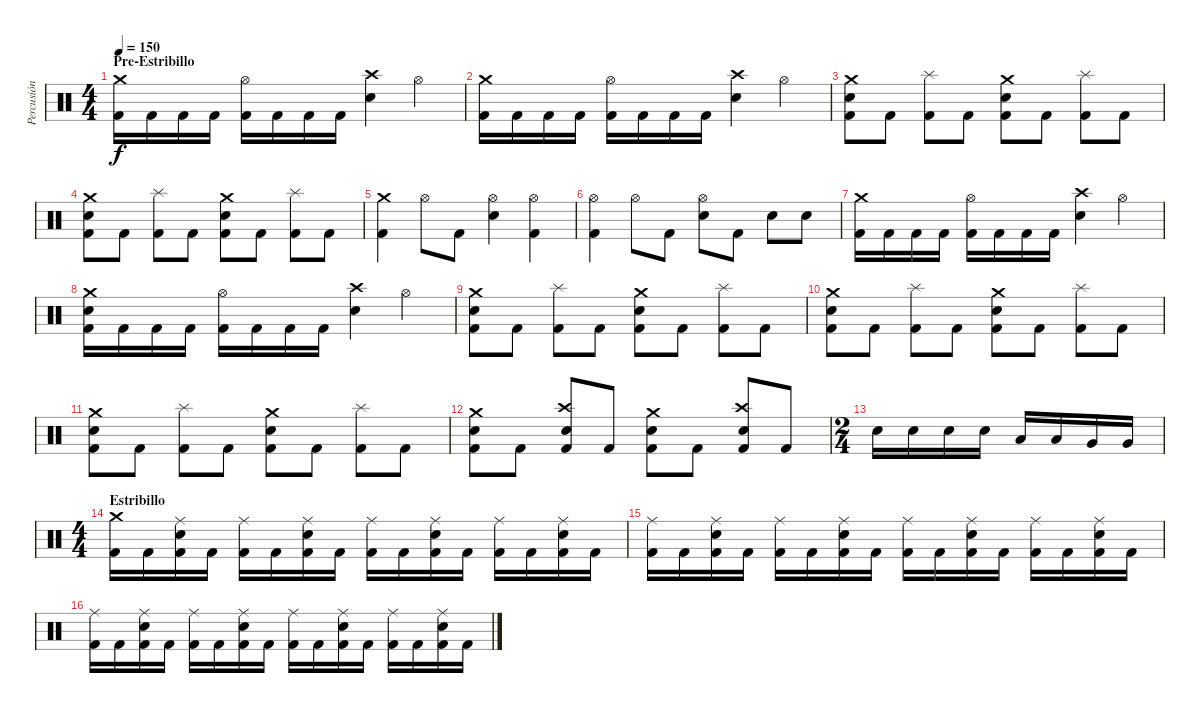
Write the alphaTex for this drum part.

\track ("Percusión" "Percusión") {instrument percussion}
\staff {score}
\articulation defaults
\ts (4 4)
\section ("" "Pre-Estribillo")
\tempo 150
\clef neutral
\ks c
("Crash medium (hit)" "Kick (hit) 2").16{dy f} "Kick (hit) 2".16 "Kick (hit) 2".16 "Kick (hit) 2".16 ("Hi-Hat (open)" "Kick (hit) 2").16 "Kick (hit) 2".16 "Kick (hit) 2".16 "Kick (hit) 2".16 ("Crash high (hit)" "Snare (hit) 2").4 "Hi-Hat (open)".4 |
("Crash medium (hit)" "Kick (hit) 2").16 "Kick (hit) 2".16 "Kick (hit) 2".16 "Kick (hit) 2".16 ("Hi-Hat (open)" "Kick (hit) 2").16 "Kick (hit) 2".16 "Kick (hit) 2".16 "Kick (hit) 2".16 ("Crash high (hit)" "Snare (hit) 2").4 "Hi-Hat (open)".4 |
("Crash medium (hit)" "Kick (hit) 2" "Snare (hit) 2").8 "Kick (hit) 2".8 ("Splash (hit)" "Kick (hit) 2").8 "Kick (hit) 2".8 ("Crash medium (hit)" "Kick (hit) 2" "Snare (hit) 2").8 "Kick (hit) 2".8 ("Splash (hit)" "Kick (hit) 2").8 "Kick (hit) 2".8 |
("Crash medium (hit)" "Kick (hit) 2" "Snare (hit) 2").8 "Kick (hit) 2".8 ("Splash (hit)" "Kick (hit) 2").8 "Kick (hit) 2".8 ("Crash medium (hit)" "Kick (hit) 2" "Snare (hit) 2").8 "Kick (hit) 2".8 ("Splash (hit)" "Kick (hit) 2").8 "Kick (hit) 2".8 |
("Crash medium (hit)" "Kick (hit) 2").4 "Hi-Hat (open)".8 "Kick (hit) 2".8 ("Hi-Hat (open)" "Snare (hit) 2").4 ("Hi-Hat (open)" "Kick (hit) 2").4 |
("Hi-Hat (open)" "Kick (hit) 2").4 "Hi-Hat (open)".8 "Kick (hit) 2".8 ("Hi-Hat (open)" "Snare (hit) 2").8 "Kick (hit) 2".8 "Snare (hit) 2".8 "Snare (hit) 2".8 |
("Crash medium (hit)" "Kick (hit) 2").16 "Kick (hit) 2".16 "Kick (hit) 2".16 "Kick (hit) 2".16 ("Hi-Hat (open)" "Kick (hit) 2").16 "Kick (hit) 2".16 "Kick (hit) 2".16 "Kick (hit) 2".16 ("Crash high (hit)" "Snare (hit) 2").4 "Hi-Hat (open)".4 |
("Crash medium (hit)" "Kick (hit) 2" "Snare (hit) 2").16 "Kick (hit) 2".16 "Kick (hit) 2".16 "Kick (hit) 2".16 ("Hi-Hat (open)" "Kick (hit) 2").16 "Kick (hit) 2".16 "Kick (hit) 2".16 "Kick (hit) 2".16 ("Crash high (hit)" "Snare (hit) 2").4 "Hi-Hat (open)".4 |
("Crash medium (hit)" "Kick (hit) 2" "Snare (hit) 2").8 "Kick (hit) 2".8 ("Splash (hit)" "Kick (hit) 2").8 "Kick (hit) 2".8 ("Crash medium (hit)" "Kick (hit) 2" "Snare (hit) 2").8 "Kick (hit) 2".8 ("Splash (hit)" "Kick (hit) 2").8 "Kick (hit) 2".8 |
("Crash medium (hit)" "Kick (hit) 2" "Snare (hit) 2").8 "Kick (hit) 2".8 ("Splash (hit)" "Kick (hit) 2").8 "Kick (hit) 2".8 ("Crash medium (hit)" "Kick (hit) 2" "Snare (hit) 2").8 "Kick (hit) 2".8 ("Splash (hit)" "Kick (hit) 2").8 "Kick (hit) 2".8 |
("Crash medium (hit)" "Kick (hit) 2" "Snare (hit) 2").8 "Kick (hit) 2".8 ("Splash (hit)" "Kick (hit) 2").8 "Kick (hit) 2".8 ("Crash medium (hit)" "Kick (hit) 2" "Snare (hit) 2").8 "Kick (hit) 2".8 ("Splash (hit)" "Kick (hit) 2").8 "Kick (hit) 2".8 |
("Crash medium (hit)" "Kick (hit) 2" "Snare (hit) 2").8 "Kick (hit) 2".8 ("Crash high (hit)" "Kick (hit) 2" "Snare (hit) 2").8 "Kick (hit) 2".8 ("Crash medium (hit)" "Kick (hit) 2" "Snare (hit) 2").8 "Kick (hit) 2".8 ("Crash high (hit)" "Kick (hit) 2" "Snare (hit) 2").8 "Kick (hit) 2".8 |
\ts (2 4)
"Snare (hit) 2".16 "Snare (hit) 2".16 "Snare (hit) 2".16 "Snare (hit) 2".16 "Low Tom (hit)".16 "Low Tom (hit)".16 "Very Low Tom (hit)".16 "Very Low Tom (hit)".16 |
\ts (4 4)
\section ("" "Estribillo")
("Crash medium (hit)" "Kick (hit) 2").16 "Kick (hit) 2".16 ("Ride (middle)" "Kick (hit) 2" "Snare (hit) 2").16 "Kick (hit) 2".16 ("Ride (middle)" "Kick (hit) 2").16 "Kick (hit) 2".16 ("Ride (middle)" "Kick (hit) 2" "Snare (hit) 2").16 "Kick (hit) 2".16 ("Ride (middle)" "Kick (hit) 2").16 "Kick (hit) 2".16 ("Ride (middle)" "Kick (hit) 2" "Snare (hit) 2").16 "Kick (hit) 2".16 ("Ride (middle)" "Kick (hit) 2").16 "Kick (hit) 2".16 ("Ride (middle)" "Kick (hit) 2" "Snare (hit) 2").16 "Kick (hit) 2".16 |
("Ride (middle)" "Kick (hit) 2").16 "Kick (hit) 2".16 ("Ride (middle)" "Kick (hit) 2" "Snare (hit) 2").16 "Kick (hit) 2".16 ("Ride (middle)" "Kick (hit) 2").16 "Kick (hit) 2".16 ("Ride (middle)" "Kick (hit) 2" "Snare (hit) 2").16 "Kick (hit) 2".16 ("Ride (middle)" "Kick (hit) 2").16 "Kick (hit) 2".16 ("Ride (middle)" "Kick (hit) 2" "Snare (hit) 2").16 "Kick (hit) 2".16 ("Ride (middle)" "Kick (hit) 2").16 "Kick (hit) 2".16 ("Ride (middle)" "Kick (hit) 2" "Snare (hit) 2").16 "Kick (hit) 2".16 |
("Ride (middle)" "Kick (hit) 2").16 "Kick (hit) 2".16 ("Ride (middle)" "Kick (hit) 2" "Snare (hit) 2").16 "Kick (hit) 2".16 ("Ride (middle)" "Kick (hit) 2").16 "Kick (hit) 2".16 ("Ride (middle)" "Kick (hit) 2" "Snare (hit) 2").16 "Kick (hit) 2".16 ("Ride (middle)" "Kick (hit) 2").16 "Kick (hit) 2".16 ("Ride (middle)" "Kick (hit) 2" "Snare (hit) 2").16 "Kick (hit) 2".16 ("Ride (middle)" "Kick (hit) 2").16 "Kick (hit) 2".16 ("Ride (middle)" "Kick (hit) 2" "Snare (hit) 2").16 "Kick (hit) 2".16
